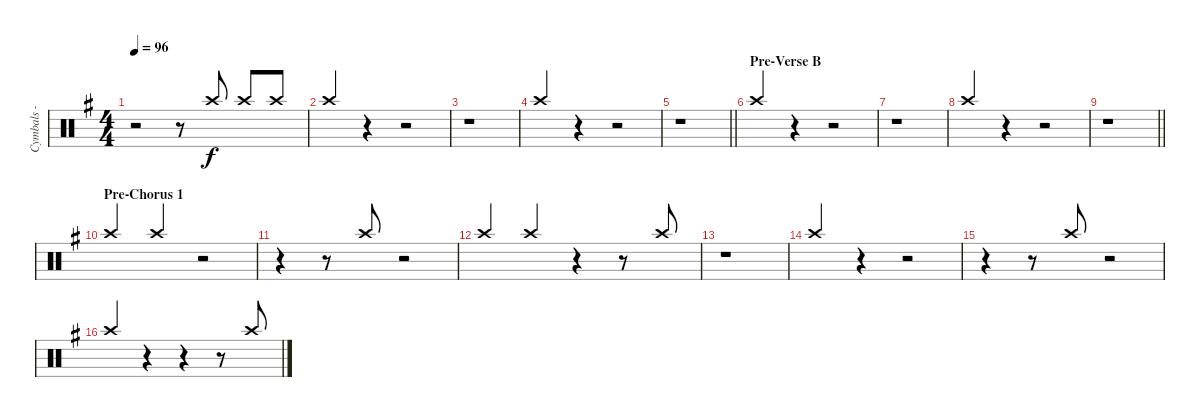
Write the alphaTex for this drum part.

\track ("Cymbals - crash" "Cymbals - ") {instrument percussion}
\staff {score}
\articulation defaults
\ts (4 4)
\tempo 96
\clef neutral
\ks g
r.2{dy f} r.8 "Crash high (hit)".8{beam Up} "Crash high (hit)".8{beam Up} "Crash high (hit)".8{beam Up} |
"Crash high (hit)".4{beam Up} r.4 r.2 |
r.1 |
"Crash high (hit)".4{beam Up} r.4 r.2 |
\barLineRight lightlight
r.1 |
\section ("" "Pre-Verse B")
"Crash high (hit)".4{beam Up} r.4 r.2 |
r.1 |
"Crash high (hit)".4{beam Up} r.4 r.2 |
\barLineRight lightlight
r.1 |
\section ("" "Pre-Chorus 1")
"Crash high (hit)".4{beam Up} "Crash high (hit)".4{beam Up} r.2 |
r.4{beam merge} r.8 "Crash high (hit)".8{beam Up} r.2 |
"Crash high (hit)".4{beam Up} "Crash high (hit)".4{beam Up} r.4 r.8 "Crash high (hit)".8{beam Up} |
r.1 |
"Crash high (hit)".4{beam Up} r.4 r.2 |
r.4 r.8 "Crash high (hit)".8{beam Up} r.2 |
"Crash high (hit)".4{beam Up} r.4 r.4 r.8 "Crash high (hit)".8{beam Up}
